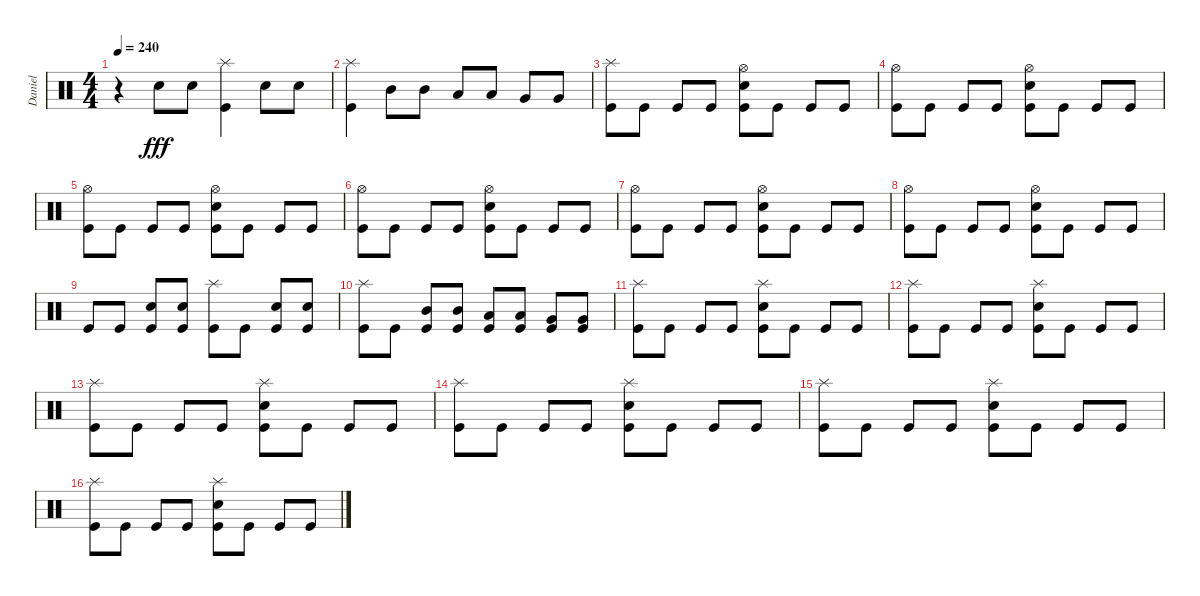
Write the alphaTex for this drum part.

\track ("Daniel" "Daniel") {instrument percussion}
\staff {score}
\articulation defaults
\ts (4 4)
\tempo 240
\clef neutral
\ks c
r.4{dy fff} "Electric Snare (hit)".8 "Electric Snare (hit)".8 ("Kick (hit)" "Splash (hit)").4 "Electric Snare (hit)".8 "Electric Snare (hit)".8 |
("Kick (hit)" "Splash (hit)").4 "Mid Tom (hit)".8 "Mid Tom (hit)".8 "Low Tom (hit)".8 "Low Tom (hit)".8 "Very Low Tom (hit)".8 "Very Low Tom (hit)".8 |
("Kick (hit)" "Splash (hit)").8 "Kick (hit)".8 "Kick (hit)".8 "Kick (hit)".8 ("Kick (hit)" "Electric Snare (hit)" "Hi-Hat (open)").8 "Kick (hit)".8 "Kick (hit)".8 "Kick (hit)".8 |
("Kick (hit)" "Hi-Hat (open)").8 "Kick (hit)".8 "Kick (hit)".8 "Kick (hit)".8 ("Kick (hit)" "Electric Snare (hit)" "Hi-Hat (open)").8 "Kick (hit)".8 "Kick (hit)".8 "Kick (hit)".8 |
("Kick (hit)" "Hi-Hat (open)").8 "Kick (hit)".8 "Kick (hit)".8 "Kick (hit)".8 ("Kick (hit)" "Electric Snare (hit)" "Hi-Hat (open)").8 "Kick (hit)".8 "Kick (hit)".8 "Kick (hit)".8 |
("Kick (hit)" "Hi-Hat (open)").8 "Kick (hit)".8 "Kick (hit)".8 "Kick (hit)".8 ("Kick (hit)" "Electric Snare (hit)" "Hi-Hat (open)").8 "Kick (hit)".8 "Kick (hit)".8 "Kick (hit)".8 |
("Kick (hit)" "Hi-Hat (open)").8 "Kick (hit)".8 "Kick (hit)".8 "Kick (hit)".8 ("Kick (hit)" "Electric Snare (hit)" "Hi-Hat (open)").8 "Kick (hit)".8 "Kick (hit)".8 "Kick (hit)".8 |
("Kick (hit)" "Hi-Hat (open)").8 "Kick (hit)".8 "Kick (hit)".8 "Kick (hit)".8 ("Kick (hit)" "Electric Snare (hit)" "Hi-Hat (open)").8 "Kick (hit)".8 "Kick (hit)".8 "Kick (hit)".8 |
"Kick (hit)".8 "Kick (hit)".8 ("Kick (hit)" "Electric Snare (hit)").8 ("Kick (hit)" "Electric Snare (hit)").8 ("Kick (hit)" "Splash (hit)").8 "Kick (hit)".8 ("Kick (hit)" "Electric Snare (hit)").8 ("Kick (hit)" "Electric Snare (hit)").8 |
("Kick (hit)" "Splash (hit)").8 "Kick (hit)".8 ("Kick (hit)" "Mid Tom (hit)").8 ("Kick (hit)" "Mid Tom (hit)").8 ("Kick (hit)" "Low Tom (hit)").8 ("Kick (hit)" "Low Tom (hit)").8 ("Kick (hit)" "Very Low Tom (hit)").8 ("Kick (hit)" "Very Low Tom (hit)").8 |
("Kick (hit)" "Splash (hit)").8 "Kick (hit)".8 "Kick (hit)".8 "Kick (hit)".8 ("Kick (hit)" "Electric Snare (hit)" "Splash (hit)").8 "Kick (hit)".8 "Kick (hit)".8 "Kick (hit)".8 |
("Kick (hit)" "Splash (hit)").8 "Kick (hit)".8 "Kick (hit)".8 "Kick (hit)".8 ("Kick (hit)" "Electric Snare (hit)" "Splash (hit)").8 "Kick (hit)".8 "Kick (hit)".8 "Kick (hit)".8 |
("Kick (hit)" "Splash (hit)").8 "Kick (hit)".8 "Kick (hit)".8 "Kick (hit)".8 ("Kick (hit)" "Electric Snare (hit)" "Splash (hit)").8 "Kick (hit)".8 "Kick (hit)".8 "Kick (hit)".8 |
("Kick (hit)" "Splash (hit)").8 "Kick (hit)".8 "Kick (hit)".8 "Kick (hit)".8 ("Kick (hit)" "Electric Snare (hit)" "Splash (hit)").8 "Kick (hit)".8 "Kick (hit)".8 "Kick (hit)".8 |
("Kick (hit)" "Splash (hit)").8 "Kick (hit)".8 "Kick (hit)".8 "Kick (hit)".8 ("Kick (hit)" "Electric Snare (hit)" "Splash (hit)").8 "Kick (hit)".8 "Kick (hit)".8 "Kick (hit)".8 |
("Kick (hit)" "Splash (hit)").8 "Kick (hit)".8 "Kick (hit)".8 "Kick (hit)".8 ("Kick (hit)" "Electric Snare (hit)" "Splash (hit)").8 "Kick (hit)".8 "Kick (hit)".8 "Kick (hit)".8
